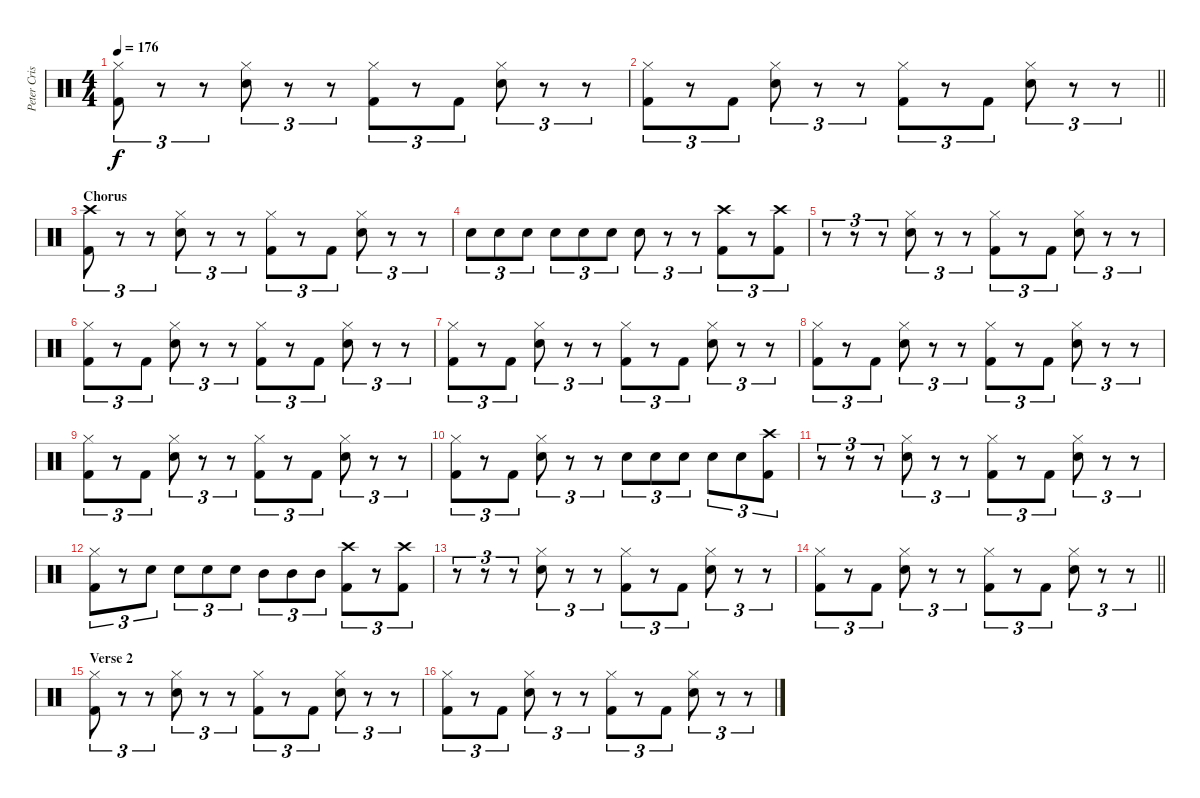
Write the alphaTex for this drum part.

\track ("Peter Criss" "Peter Cris") {instrument percussion}
\staff {score}
\articulation defaults
\ts (4 4)
\tempo 176
\clef neutral
\ks c
("Hi-Hat (closed)" "Kick (hit) 2").8{tu (3 2) dy f} r.8{tu (3 2)} r.8{tu (3 2)} ("Hi-Hat (closed)" "Electric Snare (hit)").8{tu (3 2)} r.8{tu (3 2)} r.8{tu (3 2)} ("Hi-Hat (closed)" "Kick (hit) 2").8{tu (3 2)} r.8{tu (3 2)} "Kick (hit) 2".8{tu (3 2)} ("Hi-Hat (closed)" "Electric Snare (hit)").8{tu (3 2)} r.8{tu (3 2)} r.8{tu (3 2)} |
\barLineRight lightlight
("Hi-Hat (closed)" "Kick (hit) 2").8{tu (3 2)} r.8{tu (3 2)} "Kick (hit) 2".8{tu (3 2)} ("Hi-Hat (closed)" "Electric Snare (hit)").8{tu (3 2)} r.8{tu (3 2)} r.8{tu (3 2)} ("Hi-Hat (closed)" "Kick (hit) 2").8{tu (3 2)} r.8{tu (3 2)} "Kick (hit) 2".8{tu (3 2)} ("Hi-Hat (closed)" "Electric Snare (hit)").8{tu (3 2)} r.8{tu (3 2)} r.8{tu (3 2)} |
\section ("" "Chorus")
("Crash high (hit)" "Kick (hit) 2").8{tu (3 2)} r.8{tu (3 2)} r.8{tu (3 2)} ("Hi-Hat (closed)" "Electric Snare (hit)").8{tu (3 2)} r.8{tu (3 2)} r.8{tu (3 2)} ("Hi-Hat (closed)" "Kick (hit) 2").8{tu (3 2)} r.8{tu (3 2)} "Kick (hit) 2".8{tu (3 2)} ("Hi-Hat (closed)" "Electric Snare (hit)").8{tu (3 2)} r.8{tu (3 2)} r.8{tu (3 2)} |
"Electric Snare (hit)".8{tu (3 2)} "Electric Snare (hit)".8{tu (3 2)} "Electric Snare (hit)".8{tu (3 2)} "Electric Snare (hit)".8{tu (3 2)} "Electric Snare (hit)".8{tu (3 2)} "Electric Snare (hit)".8{tu (3 2)} "Electric Snare (hit)".8{tu (3 2)} r.8{tu (3 2)} r.8{tu (3 2)} ("Crash high (hit)" "Kick (hit) 2").8{tu (3 2)} r.8{tu (3 2)} ("Crash high (hit)" "Kick (hit) 2").8{tu (3 2)} |
r.8{tu (3 2)} r.8{tu (3 2)} r.8{tu (3 2)} ("Hi-Hat (closed)" "Electric Snare (hit)").8{tu (3 2)} r.8{tu (3 2)} r.8{tu (3 2)} ("Hi-Hat (closed)" "Kick (hit) 2").8{tu (3 2)} r.8{tu (3 2)} "Kick (hit) 2".8{tu (3 2)} ("Hi-Hat (closed)" "Electric Snare (hit)").8{tu (3 2)} r.8{tu (3 2)} r.8{tu (3 2)} |
("Hi-Hat (closed)" "Kick (hit) 2").8{tu (3 2)} r.8{tu (3 2)} "Kick (hit) 2".8{tu (3 2)} ("Hi-Hat (closed)" "Electric Snare (hit)").8{tu (3 2)} r.8{tu (3 2)} r.8{tu (3 2)} ("Hi-Hat (closed)" "Kick (hit) 2").8{tu (3 2)} r.8{tu (3 2)} "Kick (hit) 2".8{tu (3 2)} ("Hi-Hat (closed)" "Electric Snare (hit)").8{tu (3 2)} r.8{tu (3 2)} r.8{tu (3 2)} |
("Hi-Hat (closed)" "Kick (hit) 2").8{tu (3 2)} r.8{tu (3 2)} "Kick (hit) 2".8{tu (3 2)} ("Hi-Hat (closed)" "Electric Snare (hit)").8{tu (3 2)} r.8{tu (3 2)} r.8{tu (3 2)} ("Hi-Hat (closed)" "Kick (hit) 2").8{tu (3 2)} r.8{tu (3 2)} "Kick (hit) 2".8{tu (3 2)} ("Hi-Hat (closed)" "Electric Snare (hit)").8{tu (3 2)} r.8{tu (3 2)} r.8{tu (3 2)} |
("Hi-Hat (closed)" "Kick (hit) 2").8{tu (3 2)} r.8{tu (3 2)} "Kick (hit) 2".8{tu (3 2)} ("Hi-Hat (closed)" "Electric Snare (hit)").8{tu (3 2)} r.8{tu (3 2)} r.8{tu (3 2)} ("Hi-Hat (closed)" "Kick (hit) 2").8{tu (3 2)} r.8{tu (3 2)} "Kick (hit) 2".8{tu (3 2)} ("Hi-Hat (closed)" "Electric Snare (hit)").8{tu (3 2)} r.8{tu (3 2)} r.8{tu (3 2)} |
("Hi-Hat (closed)" "Kick (hit) 2").8{tu (3 2)} r.8{tu (3 2)} "Kick (hit) 2".8{tu (3 2)} ("Hi-Hat (closed)" "Electric Snare (hit)").8{tu (3 2)} r.8{tu (3 2)} r.8{tu (3 2)} ("Hi-Hat (closed)" "Kick (hit) 2").8{tu (3 2)} r.8{tu (3 2)} "Kick (hit) 2".8{tu (3 2)} ("Hi-Hat (closed)" "Electric Snare (hit)").8{tu (3 2)} r.8{tu (3 2)} r.8{tu (3 2)} |
("Hi-Hat (closed)" "Kick (hit) 2").8{tu (3 2)} r.8{tu (3 2)} "Kick (hit) 2".8{tu (3 2)} ("Hi-Hat (closed)" "Electric Snare (hit)").8{tu (3 2)} r.8{tu (3 2)} r.8{tu (3 2)} "Electric Snare (hit)".8{tu (3 2)} "Electric Snare (hit)".8{tu (3 2)} "Electric Snare (hit)".8{tu (3 2)} "Electric Snare (hit)".8{tu (3 2)} "Electric Snare (hit)".8{tu (3 2)} ("Crash high (hit)" "Kick (hit) 2").8{tu (3 2)} |
r.8{tu (3 2)} r.8{tu (3 2)} r.8{tu (3 2)} ("Hi-Hat (closed)" "Electric Snare (hit)").8{tu (3 2)} r.8{tu (3 2)} r.8{tu (3 2)} ("Hi-Hat (closed)" "Kick (hit) 2").8{tu (3 2)} r.8{tu (3 2)} "Kick (hit) 2".8{tu (3 2)} ("Hi-Hat (closed)" "Electric Snare (hit)").8{tu (3 2)} r.8{tu (3 2)} r.8{tu (3 2)} |
("Hi-Hat (closed)" "Kick (hit) 2").8{tu (3 2)} r.8{tu (3 2)} "Electric Snare (hit)".8{tu (3 2)} "Electric Snare (hit)".8{tu (3 2)} "Electric Snare (hit)".8{tu (3 2)} "Electric Snare (hit)".8{tu (3 2)} "Mid Tom (hit)".8{tu (3 2)} "Mid Tom (hit)".8{tu (3 2)} "Mid Tom (hit)".8{tu (3 2)} ("Crash high (hit)" "Kick (hit) 2").8{tu (3 2)} r.8{tu (3 2)} ("Crash high (hit)" "Kick (hit) 2").8{tu (3 2)} |
r.8{tu (3 2)} r.8{tu (3 2)} r.8{tu (3 2)} ("Hi-Hat (closed)" "Electric Snare (hit)").8{tu (3 2)} r.8{tu (3 2)} r.8{tu (3 2)} ("Hi-Hat (closed)" "Kick (hit) 2").8{tu (3 2)} r.8{tu (3 2)} "Kick (hit) 2".8{tu (3 2)} ("Hi-Hat (closed)" "Electric Snare (hit)").8{tu (3 2)} r.8{tu (3 2)} r.8{tu (3 2)} |
\barLineRight lightlight
("Hi-Hat (closed)" "Kick (hit) 2").8{tu (3 2)} r.8{tu (3 2)} "Kick (hit) 2".8{tu (3 2)} ("Hi-Hat (closed)" "Electric Snare (hit)").8{tu (3 2)} r.8{tu (3 2)} r.8{tu (3 2)} ("Hi-Hat (closed)" "Kick (hit) 2").8{tu (3 2)} r.8{tu (3 2)} "Kick (hit) 2".8{tu (3 2)} ("Hi-Hat (closed)" "Electric Snare (hit)").8{tu (3 2)} r.8{tu (3 2)} r.8{tu (3 2)} |
\section ("" "Verse 2")
("Hi-Hat (closed)" "Kick (hit) 2").8{tu (3 2)} r.8{tu (3 2)} r.8{tu (3 2)} ("Hi-Hat (closed)" "Electric Snare (hit)").8{tu (3 2)} r.8{tu (3 2)} r.8{tu (3 2)} ("Hi-Hat (closed)" "Kick (hit) 2").8{tu (3 2)} r.8{tu (3 2)} "Kick (hit) 2".8{tu (3 2)} ("Hi-Hat (closed)" "Electric Snare (hit)").8{tu (3 2)} r.8{tu (3 2)} r.8{tu (3 2)} |
("Hi-Hat (closed)" "Kick (hit) 2").8{tu (3 2)} r.8{tu (3 2)} "Kick (hit) 2".8{tu (3 2)} ("Hi-Hat (closed)" "Electric Snare (hit)").8{tu (3 2)} r.8{tu (3 2)} r.8{tu (3 2)} ("Hi-Hat (closed)" "Kick (hit) 2").8{tu (3 2)} r.8{tu (3 2)} "Kick (hit) 2".8{tu (3 2)} ("Hi-Hat (closed)" "Electric Snare (hit)").8{tu (3 2)} r.8{tu (3 2)} r.8{tu (3 2)}
